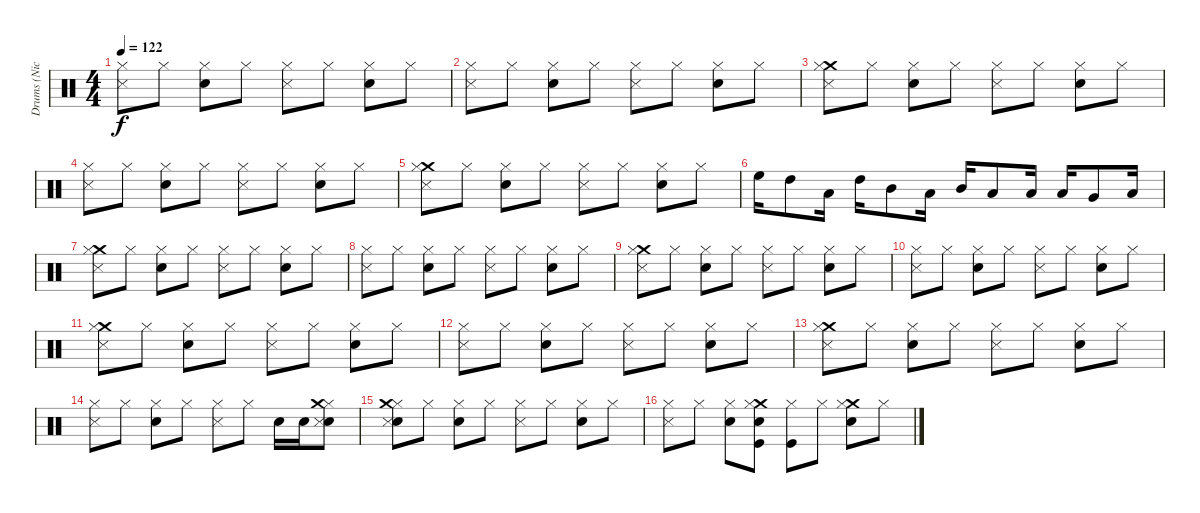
\track ("Drums (Nick Menza)" "Drums (Nic") {instrument percussion}
\staff {score}
\articulation defaults
\ts (4 4)
\tempo 122
\clef neutral
\ks c
("Hi-Hat (closed)" "Metronome (hit)").8{dy f} "Hi-Hat (closed)".8 ("Hi-Hat (closed)" "Electric Snare (hit)").8 "Hi-Hat (closed)".8 ("Hi-Hat (closed)" "Metronome (hit)").8 "Hi-Hat (closed)".8 ("Hi-Hat (closed)" "Electric Snare (hit)").8 "Hi-Hat (closed)".8 |
("Hi-Hat (closed)" "Metronome (hit)").8 "Hi-Hat (closed)".8 ("Hi-Hat (closed)" "Electric Snare (hit)").8 "Hi-Hat (closed)".8 ("Hi-Hat (closed)" "Metronome (hit)").8 "Hi-Hat (closed)".8 ("Hi-Hat (closed)" "Electric Snare (hit)").8 "Hi-Hat (closed)".8 |
("Crash medium (hit)" "Hi-Hat (closed)" "Metronome (hit)").8 "Hi-Hat (closed)".8 ("Hi-Hat (closed)" "Electric Snare (hit)").8 "Hi-Hat (closed)".8 ("Hi-Hat (closed)" "Metronome (hit)").8 "Hi-Hat (closed)".8 ("Hi-Hat (closed)" "Electric Snare (hit)").8 "Hi-Hat (closed)".8 |
("Hi-Hat (closed)" "Metronome (hit)").8 "Hi-Hat (closed)".8 ("Hi-Hat (closed)" "Electric Snare (hit)").8 "Hi-Hat (closed)".8 ("Hi-Hat (closed)" "Metronome (hit)").8 "Hi-Hat (closed)".8 ("Hi-Hat (closed)" "Electric Snare (hit)").8 "Hi-Hat (closed)".8 |
("Crash medium (hit)" "Hi-Hat (closed)" "Metronome (hit)").8 "Hi-Hat (closed)".8 ("Hi-Hat (closed)" "Electric Snare (hit)").8 "Hi-Hat (closed)".8 ("Hi-Hat (closed)" "Metronome (hit)").8 "Hi-Hat (closed)".8 ("Hi-Hat (closed)" "Electric Snare (hit)").8 "Hi-Hat (closed)".8 |
"High Floor Tom (hit)".16 "High Tom (hit)".8 "Low Floor Tom (hit)".16 "High Tom (hit)".16 "Mid Tom (hit)".8 "Low Floor Tom (hit)".16 "Mid Tom (hit)".16 "Low Tom (hit)".8 "Low Floor Tom (hit)".16 "Low Tom (hit)".16 "Very Low Tom (hit)".8 "Low Floor Tom (hit)".16 |
("Crash medium (hit)" "Hi-Hat (closed)" "Metronome (hit)").8 "Hi-Hat (closed)".8 ("Hi-Hat (closed)" "Electric Snare (hit)").8 "Hi-Hat (closed)".8 ("Hi-Hat (closed)" "Metronome (hit)").8 "Hi-Hat (closed)".8 ("Hi-Hat (closed)" "Electric Snare (hit)").8 "Hi-Hat (closed)".8 |
("Hi-Hat (closed)" "Metronome (hit)").8 "Hi-Hat (closed)".8 ("Hi-Hat (closed)" "Electric Snare (hit)").8 "Hi-Hat (closed)".8 ("Hi-Hat (closed)" "Metronome (hit)").8 "Hi-Hat (closed)".8 ("Hi-Hat (closed)" "Electric Snare (hit)").8 "Hi-Hat (closed)".8 |
("Crash medium (hit)" "Hi-Hat (closed)" "Metronome (hit)").8 "Hi-Hat (closed)".8 ("Hi-Hat (closed)" "Electric Snare (hit)").8 "Hi-Hat (closed)".8 ("Hi-Hat (closed)" "Metronome (hit)").8 "Hi-Hat (closed)".8 ("Hi-Hat (closed)" "Electric Snare (hit)").8 "Hi-Hat (closed)".8 |
("Hi-Hat (closed)" "Metronome (hit)").8 "Hi-Hat (closed)".8 ("Hi-Hat (closed)" "Electric Snare (hit)").8 "Hi-Hat (closed)".8 ("Hi-Hat (closed)" "Metronome (hit)").8 "Hi-Hat (closed)".8 ("Hi-Hat (closed)" "Electric Snare (hit)").8 "Hi-Hat (closed)".8 |
("Crash medium (hit)" "Hi-Hat (closed)" "Metronome (hit)").8 "Hi-Hat (closed)".8 ("Hi-Hat (closed)" "Electric Snare (hit)").8 "Hi-Hat (closed)".8 ("Hi-Hat (closed)" "Metronome (hit)").8 "Hi-Hat (closed)".8 ("Hi-Hat (closed)" "Electric Snare (hit)").8 "Hi-Hat (closed)".8 |
("Hi-Hat (closed)" "Metronome (hit)").8 "Hi-Hat (closed)".8 ("Hi-Hat (closed)" "Electric Snare (hit)").8 "Hi-Hat (closed)".8 ("Hi-Hat (closed)" "Metronome (hit)").8 "Hi-Hat (closed)".8 ("Hi-Hat (closed)" "Electric Snare (hit)").8 "Hi-Hat (closed)".8 |
("Crash medium (hit)" "Hi-Hat (closed)" "Metronome (hit)").8 "Hi-Hat (closed)".8 ("Hi-Hat (closed)" "Electric Snare (hit)").8 "Hi-Hat (closed)".8 ("Hi-Hat (closed)" "Metronome (hit)").8 "Hi-Hat (closed)".8 ("Hi-Hat (closed)" "Electric Snare (hit)").8 "Hi-Hat (closed)".8 |
("Hi-Hat (closed)" "Metronome (hit)").8 "Hi-Hat (closed)".8 ("Hi-Hat (closed)" "Electric Snare (hit)").8 "Hi-Hat (closed)".8 ("Hi-Hat (closed)" "Metronome (hit)").8 "Hi-Hat (closed)".8 "Electric Snare (hit)".16 "Electric Snare (hit)".16 ("Hi-Hat (closed)" "Electric Snare (hit)" "Metronome (hit)" "Crash medium (hit)").8 |
("Hi-Hat (closed)" "Crash medium (hit)" "Electric Snare (hit)" "Metronome (hit)").8 "Hi-Hat (closed)".8 ("Electric Snare (hit)" "Hi-Hat (closed)").8 "Hi-Hat (closed)".8 ("Metronome (hit)" "Hi-Hat (closed)").8 "Hi-Hat (closed)".8 ("Electric Snare (hit)" "Hi-Hat (closed)").8 "Hi-Hat (closed)".8 |
("Hi-Hat (closed)" "Metronome (hit)").8 "Hi-Hat (closed)".8 ("Electric Snare (hit)" "Hi-Hat (closed)").8 ("Kick (hit)" "Snare (hit) 2" "Crash medium (hit)" "Hi-Hat (closed)").8 ("Kick (hit)" "Hi-Hat (closed)").8 "Hi-Hat (closed)".8 ("Crash medium (hit)" "Electric Snare (hit)" "Hi-Hat (closed)").8 "Hi-Hat (closed)".8
